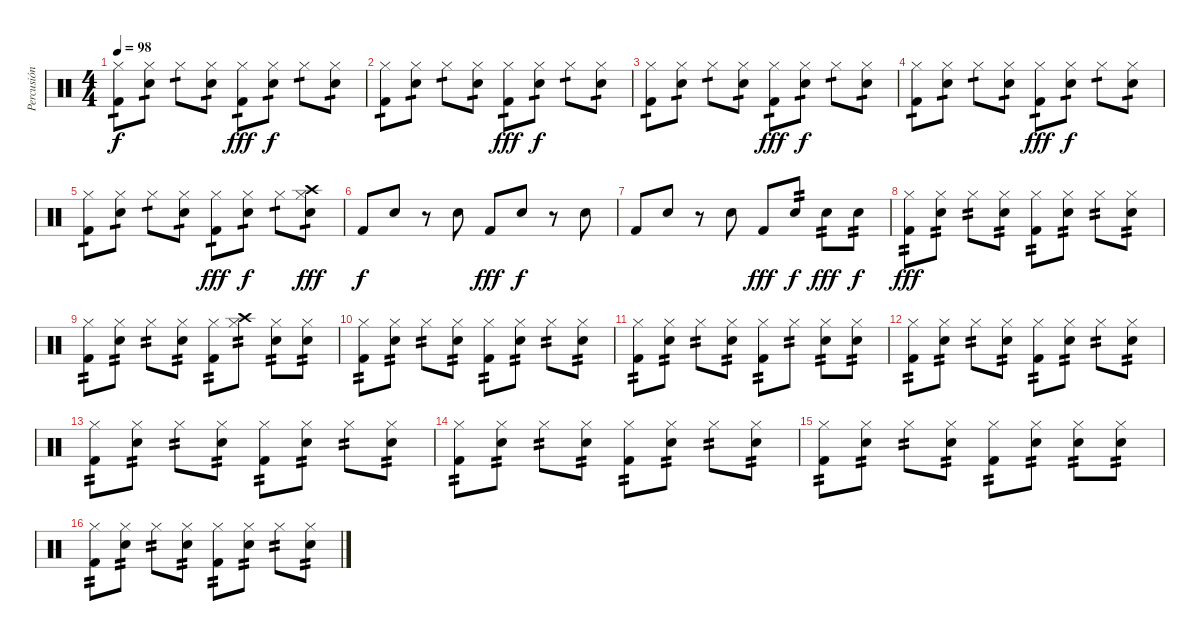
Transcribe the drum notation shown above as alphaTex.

\track ("Percusión" "Percusión") {instrument percussion}
\staff {score}
\articulation defaults
\ts (4 4)
\tempo 98
\clef neutral
\ks c
("Hi-Hat (closed)" "Kick (hit) 2").8{tp 1 dy f} ("Hi-Hat (closed)" "Snare (hit) 2").8{tp 1} "Hi-Hat (closed)".8{tp 1} ("Hi-Hat (closed)" "Snare (hit) 2").8{tp 1} ("Hi-Hat (closed)" "Kick (hit) 2").8{tp 1 dy fff} ("Hi-Hat (closed)" "Snare (hit) 2").8{tp 1 dy f} "Hi-Hat (closed)".8{tp 1} ("Hi-Hat (closed)" "Snare (hit) 2").8{tp 1} |
("Hi-Hat (closed)" "Kick (hit) 2").8{tp 1} ("Hi-Hat (closed)" "Snare (hit) 2").8{tp 1} "Hi-Hat (closed)".8{tp 1} ("Hi-Hat (closed)" "Snare (hit) 2").8{tp 1} ("Hi-Hat (closed)" "Kick (hit) 2").8{tp 1 dy fff} ("Hi-Hat (closed)" "Snare (hit) 2").8{tp 1 dy f} "Hi-Hat (closed)".8{tp 1} ("Hi-Hat (closed)" "Snare (hit) 2").8{tp 1} |
("Hi-Hat (closed)" "Kick (hit) 2").8{tp 1} ("Hi-Hat (closed)" "Snare (hit) 2").8{tp 1} "Hi-Hat (closed)".8{tp 1} ("Hi-Hat (closed)" "Snare (hit) 2").8{tp 1} ("Hi-Hat (closed)" "Kick (hit) 2").8{tp 1 dy fff} ("Hi-Hat (closed)" "Snare (hit) 2").8{tp 1 dy f} "Hi-Hat (closed)".8{tp 1} ("Hi-Hat (closed)" "Snare (hit) 2").8{tp 1} |
("Hi-Hat (closed)" "Kick (hit) 2").8{tp 1} ("Hi-Hat (closed)" "Snare (hit) 2").8{tp 1} "Hi-Hat (closed)".8{tp 1} ("Hi-Hat (closed)" "Snare (hit) 2").8{tp 1} ("Hi-Hat (closed)" "Kick (hit) 2").8{tp 1 dy fff} ("Hi-Hat (closed)" "Snare (hit) 2").8{tp 1 dy f} "Hi-Hat (closed)".8{tp 1} ("Hi-Hat (closed)" "Snare (hit) 2").8{tp 1} |
("Hi-Hat (closed)" "Kick (hit) 2").8{tp 1} ("Hi-Hat (closed)" "Snare (hit) 2").8{tp 1} "Hi-Hat (closed)".8{tp 1} ("Hi-Hat (closed)" "Snare (hit) 2").8{tp 1} ("Hi-Hat (closed)" "Kick (hit) 2").8{tp 1 dy fff} ("Hi-Hat (closed)" "Snare (hit) 2").8{tp 1 dy f} "Hi-Hat (closed)".8{tp 1} ("Hi-Hat (closed)" "Snare (hit) 2" "Crash high (hit)").8{tp 1 dy fff} |
"Kick (hit) 2".8{dy f} "Snare (hit) 2".8 r.8 "Snare (hit) 2".8 "Kick (hit) 2".8{dy fff} "Snare (hit) 2".8{dy f} r.8 "Snare (hit) 2".8 |
"Kick (hit) 2".8 "Snare (hit) 2".8 r.8 "Snare (hit) 2".8 "Kick (hit) 2".8{dy fff} "Snare (hit) 2".8{tp 2 dy f} "Snare (hit) 2".8{tp 2 dy fff} "Snare (hit) 2".8{tp 2 dy f} |
("Hi-Hat (closed)" "Kick (hit) 2").8{tp 2 dy fff} ("Hi-Hat (closed)" "Snare (hit) 2").8{tp 2} "Hi-Hat (closed)".8{tp 2} ("Hi-Hat (closed)" "Snare (hit) 2").8{tp 2} ("Hi-Hat (closed)" "Kick (hit) 2").8{tp 2} ("Hi-Hat (closed)" "Snare (hit) 2").8{tp 2} "Hi-Hat (closed)".8{tp 2} ("Hi-Hat (closed)" "Snare (hit) 2").8{tp 2} |
("Hi-Hat (closed)" "Kick (hit) 2").8{tp 2} ("Hi-Hat (closed)" "Snare (hit) 2").8{tp 2} "Hi-Hat (closed)".8{tp 2} ("Hi-Hat (closed)" "Snare (hit) 2").8{tp 2} ("Hi-Hat (closed)" "Kick (hit) 2").8{tp 2} ("Hi-Hat (closed)" "Crash high (hit)").8{tp 2} ("Hi-Hat (closed)" "Snare (hit) 2").8{tp 2} ("Hi-Hat (closed)" "Snare (hit) 2").8{tp 2} |
("Hi-Hat (closed)" "Kick (hit) 2").8{tp 2} ("Hi-Hat (closed)" "Snare (hit) 2").8{tp 2} "Hi-Hat (closed)".8{tp 2} ("Hi-Hat (closed)" "Snare (hit) 2").8{tp 2} ("Hi-Hat (closed)" "Kick (hit) 2").8{tp 2} ("Hi-Hat (closed)" "Snare (hit) 2").8{tp 2} "Hi-Hat (closed)".8{tp 2} ("Hi-Hat (closed)" "Snare (hit) 2").8{tp 2} |
("Hi-Hat (closed)" "Kick (hit) 2").8{tp 2} ("Hi-Hat (closed)" "Snare (hit) 2").8{tp 2} "Hi-Hat (closed)".8{tp 2} ("Hi-Hat (closed)" "Snare (hit) 2").8{tp 2} ("Hi-Hat (closed)" "Kick (hit) 2").8{tp 2} "Hi-Hat (closed)".8{tp 2} ("Hi-Hat (closed)" "Snare (hit) 2").8{tp 2} ("Hi-Hat (closed)" "Snare (hit) 2").8{tp 2} |
("Hi-Hat (closed)" "Kick (hit) 2").8{tp 2} ("Hi-Hat (closed)" "Snare (hit) 2").8{tp 2} "Hi-Hat (closed)".8{tp 2} ("Hi-Hat (closed)" "Snare (hit) 2").8{tp 2} ("Hi-Hat (closed)" "Kick (hit) 2").8{tp 2} ("Hi-Hat (closed)" "Snare (hit) 2").8{tp 2} "Hi-Hat (closed)".8{tp 2} ("Hi-Hat (closed)" "Snare (hit) 2").8{tp 2} |
("Hi-Hat (closed)" "Kick (hit) 2").8{tp 2} ("Hi-Hat (closed)" "Snare (hit) 2").8{tp 2} "Hi-Hat (closed)".8{tp 2} ("Hi-Hat (closed)" "Snare (hit) 2").8{tp 2} ("Hi-Hat (closed)" "Kick (hit) 2").8{tp 2} ("Hi-Hat (closed)" "Snare (hit) 2").8{tp 2} "Hi-Hat (closed)".8{tp 2} ("Hi-Hat (closed)" "Snare (hit) 2").8{tp 2} |
("Hi-Hat (closed)" "Kick (hit) 2").8{tp 2} ("Hi-Hat (closed)" "Snare (hit) 2").8{tp 2} "Hi-Hat (closed)".8{tp 2} ("Hi-Hat (closed)" "Snare (hit) 2").8{tp 2} ("Hi-Hat (closed)" "Kick (hit) 2").8{tp 2} ("Hi-Hat (closed)" "Snare (hit) 2").8{tp 2} "Hi-Hat (closed)".8{tp 2} ("Hi-Hat (closed)" "Snare (hit) 2").8{tp 2} |
("Hi-Hat (closed)" "Kick (hit) 2").8{tp 2} ("Hi-Hat (closed)" "Snare (hit) 2").8{tp 2} "Hi-Hat (closed)".8{tp 2} ("Hi-Hat (closed)" "Snare (hit) 2").8{tp 2} ("Hi-Hat (closed)" "Kick (hit) 2").8{tp 2} ("Hi-Hat (closed)" "Snare (hit) 2").8{tp 2} ("Hi-Hat (closed)" "Snare (hit) 2").8{tp 2} ("Hi-Hat (closed)" "Snare (hit) 2").8{tp 2} |
("Hi-Hat (closed)" "Kick (hit) 2").8{tp 2} ("Hi-Hat (closed)" "Snare (hit) 2").8{tp 2} "Hi-Hat (closed)".8{tp 2} ("Hi-Hat (closed)" "Snare (hit) 2").8{tp 2} ("Hi-Hat (closed)" "Kick (hit) 2").8{tp 2} ("Hi-Hat (closed)" "Snare (hit) 2").8{tp 2} "Hi-Hat (closed)".8{tp 2} ("Hi-Hat (closed)" "Snare (hit) 2").8{tp 2}
